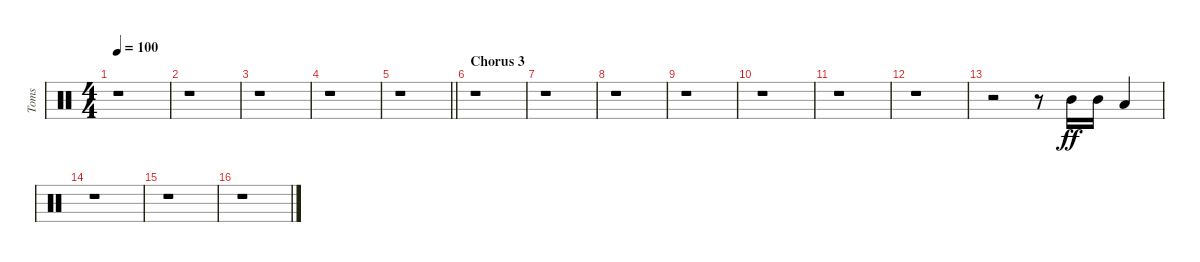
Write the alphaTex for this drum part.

\track ("Toms" "Toms") {instrument percussion}
\staff {score}
\articulation defaults
\ts (4 4)
\tempo 100
\clef neutral
\ks c
r.1{dy fff} |
r.1 |
r.1 |
r.1 |
\barLineRight lightlight
\ks aminor
r.1 |
\section ("" "Chorus 3")
\ks c
r.1 |
r.1 |
r.1 |
r.1 |
r.1 |
r.1 |
r.1 |
r.2 r.8 "Mid Tom (hit)".16{dy ff balance 8} "Mid Tom (hit)".16 "Low Tom (hit)".4{balance 5} |
r.1 |
r.1 |
r.1
